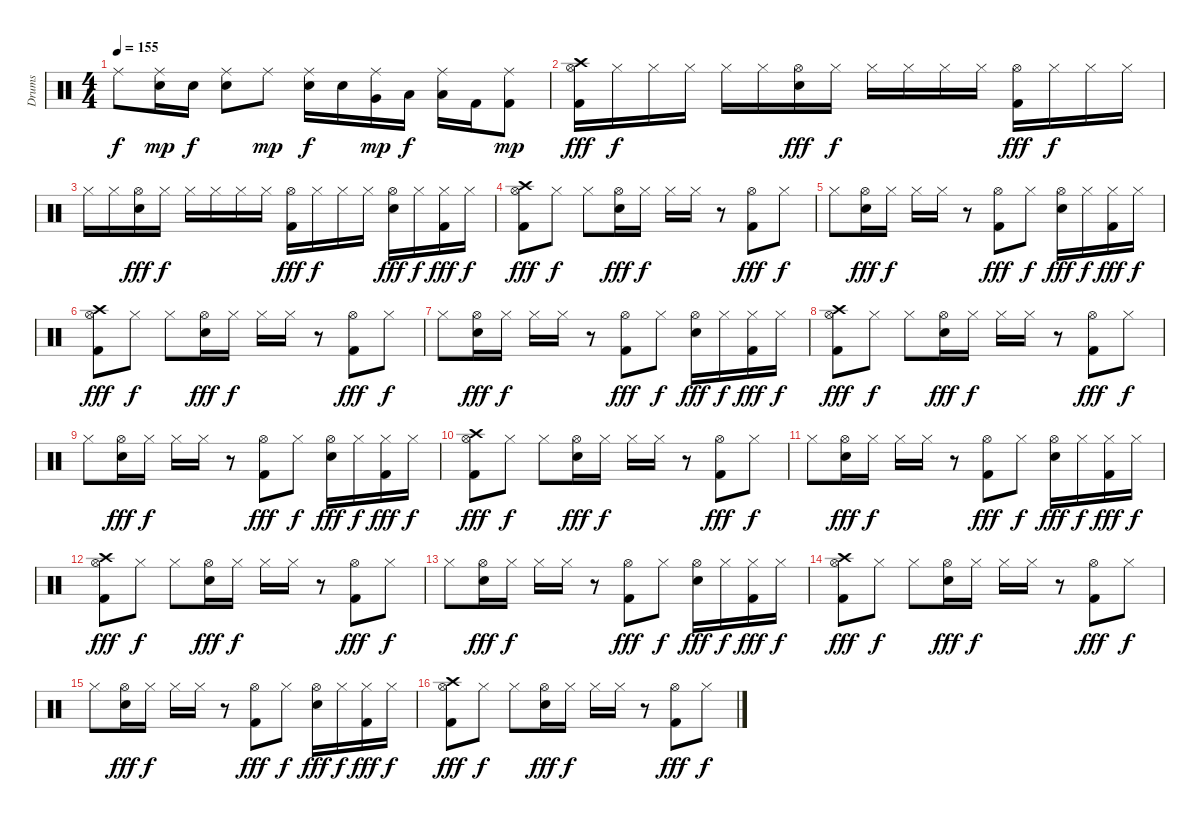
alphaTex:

\track ("Drums" "Drums") {instrument percussion}
\staff {score}
\articulation defaults
\ts (4 4)
\tempo 155
\clef neutral
\ks c "Ride (middle)".8{dy f}
("Electric Snare (hit)" "Ride (middle)").16{dy mp} "Electric Snare (hit)".16{dy f} ("Electric Snare (hit)" "Ride (middle)").8 "Ride (middle)".8{dy mp} ("Electric Snare (hit)" "Ride (middle)").16{dy f} "Electric Snare (hit)".16 ("Very Low Tom (hit)" "Ride (middle)").16{dy mp} "Low Floor Tom (hit)".16{dy f} ("Low Floor Tom (hit)" "Ride (middle)").16 "Kick (hit) 2".16 ("Kick (hit) 2" "Ride (middle)").8{dy mp} |
("Crash high (hit)" "Kick (hit) 2" "Hi-Hat (open)").16{dy fff} "Hi-Hat (closed)".16{dy f} "Hi-Hat (closed)".16 "Hi-Hat (closed)".16 "Hi-Hat (closed)".16 "Hi-Hat (closed)".16 ("Hi-Hat (open)" "Electric Snare (hit)").16{dy fff} "Hi-Hat (closed)".16{dy f} "Hi-Hat (closed)".16 "Hi-Hat (closed)".16 "Hi-Hat (closed)".16 "Hi-Hat (closed)".16 ("Hi-Hat (open)" "Kick (hit) 2").16{dy fff} "Hi-Hat (closed)".16{dy f} "Hi-Hat (closed)".16 "Hi-Hat (closed)".16 |
"Hi-Hat (closed)".16 "Hi-Hat (closed)".16 ("Hi-Hat (open)" "Electric Snare (hit)").16{dy fff} "Hi-Hat (closed)".16{dy f} "Hi-Hat (closed)".16 "Hi-Hat (closed)".16 "Hi-Hat (closed)".16 "Hi-Hat (closed)".16 ("Hi-Hat (open)" "Kick (hit) 2").16{dy fff} "Hi-Hat (closed)".16{dy f} "Hi-Hat (closed)".16 "Hi-Hat (closed)".16 ("Hi-Hat (open)" "Electric Snare (hit)").16{dy fff} "Hi-Hat (closed)".16{dy f} ("Hi-Hat (closed)" "Kick (hit) 2").16{dy fff} "Hi-Hat (closed)".16{dy f} |
("Crash high (hit)" "Kick (hit) 2" "Hi-Hat (open)").8{dy fff} "Hi-Hat (closed)".8{dy f} "Hi-Hat (closed)".8 ("Hi-Hat (open)" "Electric Snare (hit)").16{dy fff} "Hi-Hat (closed)".16{dy f} "Hi-Hat (closed)".16 "Hi-Hat (closed)".16 r.8 ("Hi-Hat (open)" "Kick (hit) 2").8{dy fff} "Hi-Hat (closed)".8{dy f} |
"Hi-Hat (closed)".8 ("Hi-Hat (open)" "Electric Snare (hit)").16{dy fff} "Hi-Hat (closed)".16{dy f} "Hi-Hat (closed)".16 "Hi-Hat (closed)".16 r.8 ("Hi-Hat (open)" "Kick (hit) 2").8{dy fff} "Hi-Hat (closed)".8{dy f} ("Hi-Hat (open)" "Electric Snare (hit)").16{dy fff} "Hi-Hat (closed)".16{dy f} ("Hi-Hat (closed)" "Kick (hit) 2").16{dy fff} "Hi-Hat (closed)".16{dy f} |
("Crash high (hit)" "Kick (hit) 2" "Hi-Hat (open)").8{dy fff} "Hi-Hat (closed)".8{dy f} "Hi-Hat (closed)".8 ("Hi-Hat (open)" "Electric Snare (hit)").16{dy fff} "Hi-Hat (closed)".16{dy f} "Hi-Hat (closed)".16 "Hi-Hat (closed)".16 r.8 ("Hi-Hat (open)" "Kick (hit) 2").8{dy fff} "Hi-Hat (closed)".8{dy f} |
"Hi-Hat (closed)".8 ("Hi-Hat (open)" "Electric Snare (hit)").16{dy fff} "Hi-Hat (closed)".16{dy f} "Hi-Hat (closed)".16 "Hi-Hat (closed)".16 r.8 ("Hi-Hat (open)" "Kick (hit) 2").8{dy fff} "Hi-Hat (closed)".8{dy f} ("Hi-Hat (open)" "Electric Snare (hit)").16{dy fff} "Hi-Hat (closed)".16{dy f} ("Hi-Hat (closed)" "Kick (hit) 2").16{dy fff} "Hi-Hat (closed)".16{dy f} |
("Crash high (hit)" "Kick (hit) 2" "Hi-Hat (open)").8{dy fff} "Hi-Hat (closed)".8{dy f} "Hi-Hat (closed)".8 ("Hi-Hat (open)" "Electric Snare (hit)").16{dy fff} "Hi-Hat (closed)".16{dy f} "Hi-Hat (closed)".16 "Hi-Hat (closed)".16 r.8 ("Hi-Hat (open)" "Kick (hit) 2").8{dy fff} "Hi-Hat (closed)".8{dy f} |
"Hi-Hat (closed)".8 ("Hi-Hat (open)" "Electric Snare (hit)").16{dy fff} "Hi-Hat (closed)".16{dy f} "Hi-Hat (closed)".16 "Hi-Hat (closed)".16 r.8 ("Hi-Hat (open)" "Kick (hit) 2").8{dy fff} "Hi-Hat (closed)".8{dy f} ("Hi-Hat (open)" "Electric Snare (hit)").16{dy fff} "Hi-Hat (closed)".16{dy f} ("Hi-Hat (closed)" "Kick (hit) 2").16{dy fff} "Hi-Hat (closed)".16{dy f} |
("Crash high (hit)" "Kick (hit) 2" "Hi-Hat (open)").8{dy fff} "Hi-Hat (closed)".8{dy f} "Hi-Hat (closed)".8 ("Hi-Hat (open)" "Electric Snare (hit)").16{dy fff} "Hi-Hat (closed)".16{dy f} "Hi-Hat (closed)".16 "Hi-Hat (closed)".16 r.8 ("Hi-Hat (open)" "Kick (hit) 2").8{dy fff} "Hi-Hat (closed)".8{dy f} |
"Hi-Hat (closed)".8 ("Hi-Hat (open)" "Electric Snare (hit)").16{dy fff} "Hi-Hat (closed)".16{dy f} "Hi-Hat (closed)".16 "Hi-Hat (closed)".16 r.8 ("Hi-Hat (open)" "Kick (hit) 2").8{dy fff} "Hi-Hat (closed)".8{dy f} ("Hi-Hat (open)" "Electric Snare (hit)").16{dy fff} "Hi-Hat (closed)".16{dy f} ("Hi-Hat (closed)" "Kick (hit) 2").16{dy fff} "Hi-Hat (closed)".16{dy f} |
("Crash high (hit)" "Kick (hit) 2" "Hi-Hat (open)").8{dy fff} "Hi-Hat (closed)".8{dy f} "Hi-Hat (closed)".8 ("Hi-Hat (open)" "Electric Snare (hit)").16{dy fff} "Hi-Hat (closed)".16{dy f} "Hi-Hat (closed)".16 "Hi-Hat (closed)".16 r.8 ("Hi-Hat (open)" "Kick (hit) 2").8{dy fff} "Hi-Hat (closed)".8{dy f} |
"Hi-Hat (closed)".8 ("Hi-Hat (open)" "Electric Snare (hit)").16{dy fff} "Hi-Hat (closed)".16{dy f} "Hi-Hat (closed)".16 "Hi-Hat (closed)".16 r.8 ("Hi-Hat (open)" "Kick (hit) 2").8{dy fff} "Hi-Hat (closed)".8{dy f} ("Hi-Hat (open)" "Electric Snare (hit)").16{dy fff} "Hi-Hat (closed)".16{dy f} ("Hi-Hat (closed)" "Kick (hit) 2").16{dy fff} "Hi-Hat (closed)".16{dy f} |
("Crash high (hit)" "Kick (hit) 2" "Hi-Hat (open)").8{dy fff} "Hi-Hat (closed)".8{dy f} "Hi-Hat (closed)".8 ("Hi-Hat (open)" "Electric Snare (hit)").16{dy fff} "Hi-Hat (closed)".16{dy f} "Hi-Hat (closed)".16 "Hi-Hat (closed)".16 r.8 ("Hi-Hat (open)" "Kick (hit) 2").8{dy fff} "Hi-Hat (closed)".8{dy f} |
"Hi-Hat (closed)".8 ("Hi-Hat (open)" "Electric Snare (hit)").16{dy fff} "Hi-Hat (closed)".16{dy f} "Hi-Hat (closed)".16 "Hi-Hat (closed)".16 r.8 ("Hi-Hat (open)" "Kick (hit) 2").8{dy fff} "Hi-Hat (closed)".8{dy f} ("Hi-Hat (open)" "Electric Snare (hit)").16{dy fff} "Hi-Hat (closed)".16{dy f} ("Hi-Hat (closed)" "Kick (hit) 2").16{dy fff} "Hi-Hat (closed)".16{dy f} |
("Crash high (hit)" "Kick (hit) 2" "Hi-Hat (open)").8{dy fff} "Hi-Hat (closed)".8{dy f} "Hi-Hat (closed)".8 ("Hi-Hat (open)" "Electric Snare (hit)").16{dy fff} "Hi-Hat (closed)".16{dy f} "Hi-Hat (closed)".16 "Hi-Hat (closed)".16 r.8 ("Hi-Hat (open)" "Kick (hit) 2").8{dy fff} "Hi-Hat (closed)".8{dy f}
